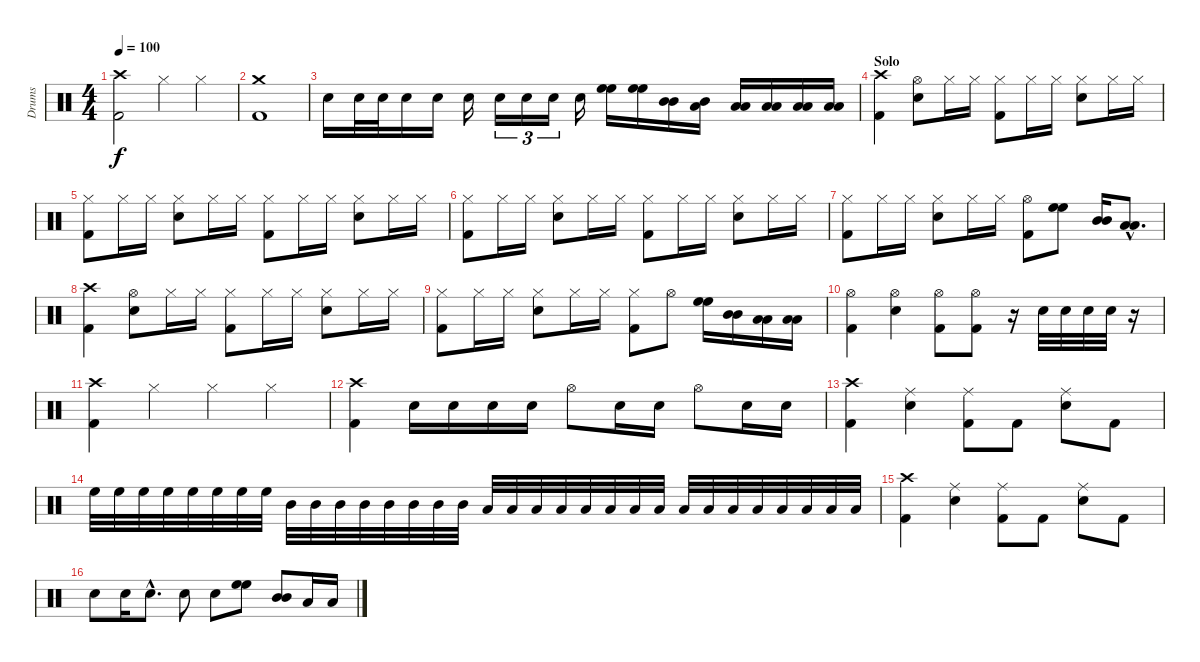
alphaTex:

\track ("Drums" "Drums") {instrument percussion}
\staff {score}
\articulation defaults
\ts (4 4)
\tempo 100
\clef neutral
\ks c
("Crash high (hit)" "Kick (hit) 2").2{dy f} "Hi-Hat (closed)".4 "Hi-Hat (closed)".4 |
("Crash medium (hit)" "Kick (hit) 2").1 |
"Snare (hit) 2".16 "Snare (hit) 2".32 "Snare (hit) 2".32 "Snare (hit) 2".16 "Snare (hit) 2".16 "Snare (hit) 2".16 "Snare (hit) 2".16{tu (3 2)} "Snare (hit) 2".16{tu (3 2)} "Snare (hit) 2".16{tu (3 2)} "Snare (hit) 2".16 ("High Floor Tom (hit)" "High Floor Tom (hit)").16 ("High Floor Tom (hit)" "High Floor Tom (hit)").16 ("Mid Tom (hit)" "Mid Tom (hit)").16 ("Mid Tom (hit)" "Low Tom (hit)").16 ("Low Tom (hit)" "Low Tom (hit)").16 ("Low Tom (hit)" "Low Tom (hit)").16 ("Low Floor Tom (hit)" "Low Floor Tom (hit)").16 ("Low Floor Tom (hit)" "Low Floor Tom (hit)").16 |
\section ("" "Solo")
("Crash high (hit)" "Kick (hit) 2").4 ("Hi-Hat (open)" "Snare (hit) 2").8 "Hi-Hat (closed)".16 "Hi-Hat (closed)".16 ("Hi-Hat (closed)" "Kick (hit) 2").8 "Hi-Hat (closed)".16 "Hi-Hat (closed)".16 ("Hi-Hat (closed)" "Snare (hit) 2").8 "Hi-Hat (closed)".16 "Hi-Hat (closed)".16 |
("Hi-Hat (closed)" "Kick (hit) 2").8 "Hi-Hat (closed)".16 "Hi-Hat (closed)".16 ("Hi-Hat (closed)" "Snare (hit) 2").8 "Hi-Hat (closed)".16 "Hi-Hat (closed)".16 ("Hi-Hat (closed)" "Kick (hit) 2").8 "Hi-Hat (closed)".16 "Hi-Hat (closed)".16 ("Hi-Hat (closed)" "Snare (hit) 2").8 "Hi-Hat (closed)".16 "Hi-Hat (closed)".16 |
("Hi-Hat (closed)" "Kick (hit) 2").8 "Hi-Hat (closed)".16 "Hi-Hat (closed)".16 ("Hi-Hat (closed)" "Snare (hit) 2").8 "Hi-Hat (closed)".16 "Hi-Hat (closed)".16 ("Hi-Hat (closed)" "Kick (hit) 2").8 "Hi-Hat (closed)".16 "Hi-Hat (closed)".16 ("Hi-Hat (closed)" "Snare (hit) 2").8 "Hi-Hat (closed)".16 "Hi-Hat (closed)".16 |
("Hi-Hat (closed)" "Kick (hit) 2").8 "Hi-Hat (closed)".16 "Hi-Hat (closed)".16 ("Hi-Hat (closed)" "Snare (hit) 2").8 "Hi-Hat (closed)".16 "Hi-Hat (closed)".16 ("Hi-Hat (open)" "Kick (hit) 2").8 ("High Floor Tom (hit)" "High Floor Tom (hit)").8 ("Mid Tom (hit)" "Mid Tom (hit)").16 ("Low Tom (hit)"{hac} "Low Tom (hit)"{hac}).8{d} |
("Crash high (hit)" "Kick (hit) 2").4 ("Hi-Hat (open)" "Snare (hit) 2").8 "Hi-Hat (closed)".16 "Hi-Hat (closed)".16 ("Hi-Hat (closed)" "Kick (hit) 2").8 "Hi-Hat (closed)".16 "Hi-Hat (closed)".16 ("Hi-Hat (closed)" "Snare (hit) 2").8 "Hi-Hat (closed)".16 "Hi-Hat (closed)".16 |
("Hi-Hat (closed)" "Kick (hit) 2").8 "Hi-Hat (closed)".16 "Hi-Hat (closed)".16 ("Hi-Hat (closed)" "Snare (hit) 2").8 "Hi-Hat (closed)".16 "Hi-Hat (closed)".16 ("Hi-Hat (closed)" "Kick (hit) 2").8 "Hi-Hat (open)".8 ("High Floor Tom (hit)" "High Floor Tom (hit)").16 ("Mid Tom (hit)" "Mid Tom (hit)").16 ("Low Tom (hit)" "Low Tom (hit)").16 ("Low Floor Tom (hit)" "Low Floor Tom (hit)").16 |
("Hi-Hat (open)" "Kick (hit) 2").4 ("Hi-Hat (open)" "Snare (hit) 2").4 ("Hi-Hat (open)" "Kick (hit) 2").8 ("Hi-Hat (open)" "Kick (hit) 2").8 r.16 "Snare (hit) 2".32 "Snare (hit) 2".32 "Snare (hit) 2".32 "Snare (hit) 2".32 r.16 |
("Crash high (hit)" "Kick (hit) 2").4 "Hi-Hat (closed)".4 "Hi-Hat (closed)".4 "Hi-Hat (closed)".4 |
("Crash high (hit)" "Kick (hit) 2").4 "Snare (hit) 2".16 "Snare (hit) 2".16 "Snare (hit) 2".16 "Snare (hit) 2".16 "Hi-Hat (open)".8 "Snare (hit) 2".16 "Snare (hit) 2".16 "Hi-Hat (open)".8 "Snare (hit) 2".16 "Snare (hit) 2".16 |
("Crash high (hit)" "Kick (hit) 2").4 ("Ride (middle)" "Snare (hit) 2").4 ("Ride (middle)" "Kick (hit) 2").8 "Kick (hit) 2".8 ("Ride (middle)" "Snare (hit) 2").8 "Kick (hit) 2".8 |
"High Floor Tom (hit)".32 "High Floor Tom (hit)".32 "High Floor Tom (hit)".32 "High Floor Tom (hit)".32 "High Floor Tom (hit)".32 "High Floor Tom (hit)".32 "High Floor Tom (hit)".32 "High Floor Tom (hit)".32 "Mid Tom (hit)".32 "Mid Tom (hit)".32 "Mid Tom (hit)".32 "Mid Tom (hit)".32 "Mid Tom (hit)".32 "Mid Tom (hit)".32 "Mid Tom (hit)".32 "Mid Tom (hit)".32 "Low Tom (hit)".32 "Low Tom (hit)".32 "Low Tom (hit)".32 "Low Tom (hit)".32 "Low Tom (hit)".32 "Low Tom (hit)".32 "Low Tom (hit)".32 "Low Tom (hit)".32 "Low Floor Tom (hit)".32 "Low Floor Tom (hit)".32 "Low Floor Tom (hit)".32 "Low Floor Tom (hit)".32 "Low Floor Tom (hit)".32 "Low Floor Tom (hit)".32 "Low Floor Tom (hit)".32 "Low Floor Tom (hit)".32 |
("Crash high (hit)" "Kick (hit) 2").4 ("Ride (middle)" "Snare (hit) 2").4 ("Ride (middle)" "Kick (hit) 2").8 "Kick (hit) 2".8 ("Ride (middle)" "Snare (hit) 2").8 "Kick (hit) 2".8 |
"Snare (hit) 2".8 "Snare (hit) 2".16 "Snare (hit) 2"{hac}.8{d} "Snare (hit) 2".8 "Snare (hit) 2".8 ("High Floor Tom (hit)" "High Floor Tom (hit)").8 ("Mid Tom (hit)" "Mid Tom (hit)").8 "Low Floor Tom (hit)".16 "Low Floor Tom (hit)".16
